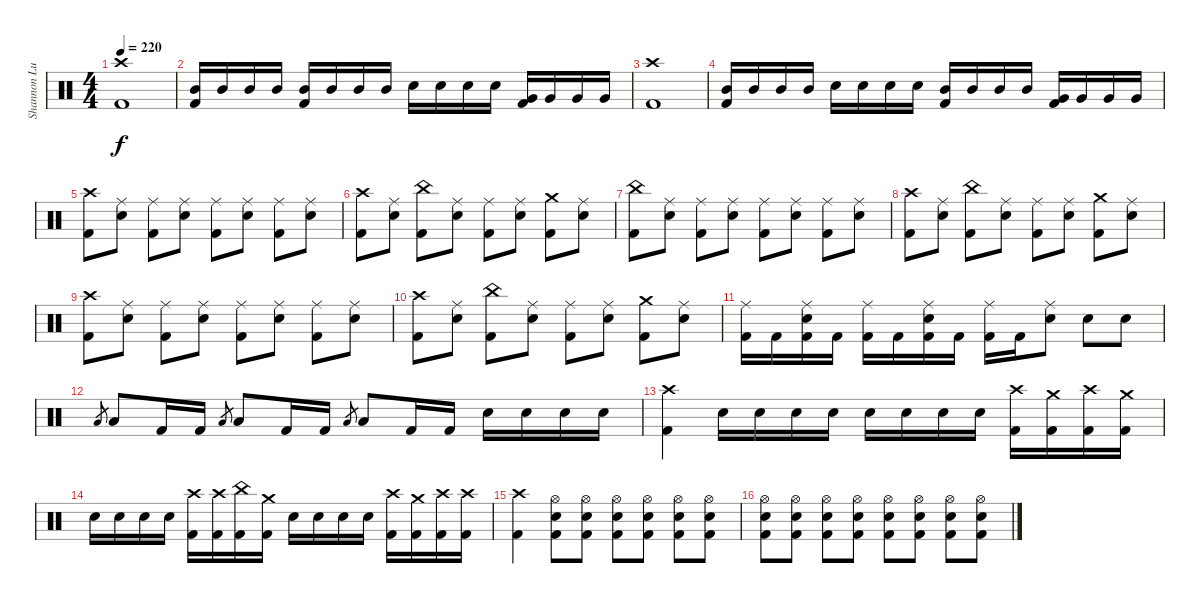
\track ("Shannon Lucas (Drums)" "Shannon Lu") {instrument percussion}
\staff {score}
\articulation defaults
\ts (4 4)
\tempo 220
\clef neutral
\ks c
("Crash high (hit)" "Kick (hit) 2").1{dy f} |
("Mid Tom (hit)" "Kick (hit) 2").16 "Mid Tom (hit)".16 "Mid Tom (hit)".16 "Mid Tom (hit)".16 ("Mid Tom (hit)" "Kick (hit) 2").16 "Mid Tom (hit)".16 "Mid Tom (hit)".16 "Mid Tom (hit)".16 "Snare (hit) 2".16 "Snare (hit) 2".16 "Snare (hit) 2".16 "Snare (hit) 2".16 ("Very Low Tom (hit)" "Kick (hit) 2").16 "Very Low Tom (hit)".16 "Very Low Tom (hit)".16 "Very Low Tom (hit)".16 |
("Crash high (hit)" "Kick (hit) 2").1 |
("Mid Tom (hit)" "Kick (hit) 2").16 "Mid Tom (hit)".16 "Mid Tom (hit)".16 "Mid Tom (hit)".16 "Snare (hit) 2".16 "Snare (hit) 2".16 "Snare (hit) 2".16 "Snare (hit) 2".16 ("Mid Tom (hit)" "Kick (hit) 2").16 "Mid Tom (hit)".16 "Mid Tom (hit)".16 "Mid Tom (hit)".16 ("Very Low Tom (hit)" "Kick (hit) 2").16 "Very Low Tom (hit)".16 "Very Low Tom (hit)".16 "Very Low Tom (hit)".16 |
("Crash high (hit)" "Kick (hit) 2").8 ("Ride (middle)" "Snare (hit) 2").8 ("Ride (middle)" "Kick (hit) 2").8 ("Ride (middle)" "Snare (hit) 2").8 ("Ride (middle)" "Kick (hit) 2").8 ("Ride (middle)" "Snare (hit) 2").8 ("Ride (middle)" "Kick (hit) 2").8 ("Ride (middle)" "Snare (hit) 2").8 |
("Crash high (hit)" "Kick (hit) 2").8 ("Ride (middle)" "Snare (hit) 2").8 ("China (hit)" "Kick (hit) 2").8 ("Ride (middle)" "Snare (hit) 2").8 ("Ride (middle)" "Kick (hit) 2").8 ("Ride (middle)" "Snare (hit) 2").8 ("Crash medium (hit)" "Kick (hit) 2").8 ("Ride (middle)" "Snare (hit) 2").8 |
("China (hit)" "Kick (hit) 2").8 ("Ride (middle)" "Snare (hit) 2").8 ("Ride (middle)" "Kick (hit) 2").8 ("Ride (middle)" "Snare (hit) 2").8 ("Ride (middle)" "Kick (hit) 2").8 ("Ride (middle)" "Snare (hit) 2").8 ("Ride (middle)" "Kick (hit) 2").8 ("Ride (middle)" "Snare (hit) 2").8 |
("Crash high (hit)" "Kick (hit) 2").8 ("Ride (middle)" "Snare (hit) 2").8 ("China (hit)" "Kick (hit) 2").8 ("Ride (middle)" "Snare (hit) 2").8 ("Ride (middle)" "Kick (hit) 2").8 ("Ride (middle)" "Snare (hit) 2").8 ("Crash medium (hit)" "Kick (hit) 2").8 ("Ride (middle)" "Snare (hit) 2").8 |
("Crash high (hit)" "Kick (hit) 2").8 ("Ride (middle)" "Snare (hit) 2").8 ("Ride (middle)" "Kick (hit) 2").8 ("Ride (middle)" "Snare (hit) 2").8 ("Ride (middle)" "Kick (hit) 2").8 ("Ride (middle)" "Snare (hit) 2").8 ("Ride (middle)" "Kick (hit) 2").8 ("Ride (middle)" "Snare (hit) 2").8 |
("Crash high (hit)" "Kick (hit) 2").8 ("Ride (middle)" "Snare (hit) 2").8 ("China (hit)" "Kick (hit) 2").8 ("Ride (middle)" "Snare (hit) 2").8 ("Ride (middle)" "Kick (hit) 2").8 ("Ride (middle)" "Snare (hit) 2").8 ("Crash medium (hit)" "Kick (hit) 2").8 ("Ride (middle)" "Snare (hit) 2").8 |
("Ride (middle)" "Kick (hit) 2").16 "Kick (hit) 2".16 ("Ride (middle)" "Snare (hit) 2" "Kick (hit) 2").16 "Kick (hit) 2".16 ("Ride (middle)" "Kick (hit) 2").16 "Kick (hit) 2".16 ("Ride (middle)" "Snare (hit) 2" "Kick (hit) 2").16 "Kick (hit) 2".16 ("Ride (middle)" "Kick (hit) 2").16 "Kick (hit) 2".16 ("Ride (middle)" "Snare (hit) 2").8 "Snare (hit) 2".8 "Snare (hit) 2".8 |
"Low Floor Tom (hit)".8{gr} "Low Floor Tom (hit)".8 "Kick (hit) 2".16 "Kick (hit) 2".16 "Low Floor Tom (hit)".8{gr} "Low Floor Tom (hit)".8 "Kick (hit) 2".16 "Kick (hit) 2".16 "Low Floor Tom (hit)".8{gr} "Low Floor Tom (hit)".8 "Kick (hit) 2".16 "Kick (hit) 2".16 "Snare (hit) 2".16 "Snare (hit) 2".16 "Snare (hit) 2".16 "Snare (hit) 2".16 |
("Crash high (hit)" "Kick (hit) 2").4 "Snare (hit) 2".16 "Snare (hit) 2".16 "Snare (hit) 2".16 "Snare (hit) 2".16 "Snare (hit) 2".16 "Snare (hit) 2".16 "Snare (hit) 2".16 "Snare (hit) 2".16 ("Crash high (hit)" "Kick (hit) 2").16 ("Crash medium (hit)" "Kick (hit) 2").16 ("Crash high (hit)" "Kick (hit) 2").16 ("Crash medium (hit)" "Kick (hit) 2").16 |
"Snare (hit) 2".16 "Snare (hit) 2".16 "Snare (hit) 2".16 "Snare (hit) 2".16 ("Crash high (hit)" "Kick (hit) 2").16 ("Crash high (hit)" "Kick (hit) 2").16 ("China (hit)" "Kick (hit) 2").16 ("Crash medium (hit)" "Kick (hit) 2").16 "Snare (hit) 2".16 "Snare (hit) 2".16 "Snare (hit) 2".16 "Snare (hit) 2".16 ("Crash high (hit)" "Kick (hit) 2").16 ("Crash medium (hit)" "Kick (hit) 2").16 ("Crash high (hit)" "Kick (hit) 2").16 ("Crash high (hit)" "Kick (hit) 2").16 |
("Crash high (hit)" "Kick (hit) 2").4 ("Hi-Hat (open)" "Kick (hit) 2" "Snare (hit) 2").8 ("Hi-Hat (open)" "Kick (hit) 2" "Snare (hit) 2").8 ("Hi-Hat (open)" "Kick (hit) 2" "Snare (hit) 2").8 ("Hi-Hat (open)" "Kick (hit) 2" "Snare (hit) 2").8 ("Hi-Hat (open)" "Kick (hit) 2" "Snare (hit) 2").8 ("Hi-Hat (open)" "Kick (hit) 2" "Snare (hit) 2").8 |
("Hi-Hat (open)" "Kick (hit) 2" "Snare (hit) 2").8 ("Hi-Hat (open)" "Kick (hit) 2" "Snare (hit) 2").8 ("Hi-Hat (open)" "Kick (hit) 2" "Snare (hit) 2").8 ("Hi-Hat (open)" "Kick (hit) 2" "Snare (hit) 2").8 ("Hi-Hat (open)" "Kick (hit) 2" "Snare (hit) 2").8 ("Hi-Hat (open)" "Kick (hit) 2" "Snare (hit) 2").8 ("Hi-Hat (open)" "Kick (hit) 2" "Snare (hit) 2").8 ("Hi-Hat (open)" "Kick (hit) 2" "Snare (hit) 2").8
